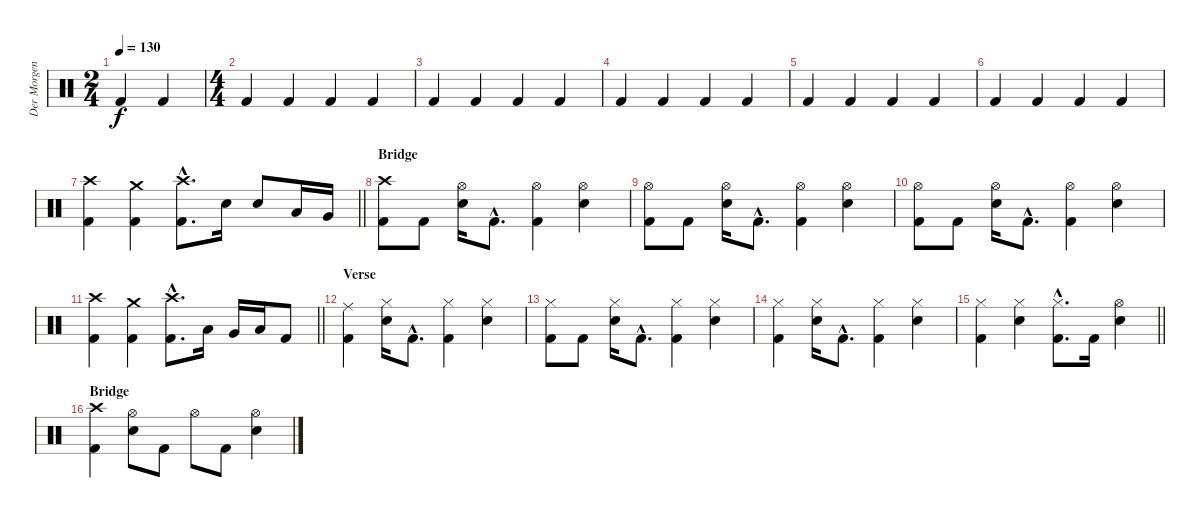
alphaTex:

\track ("Der Morgenstern" "Der Morgen") {instrument percussion}
\staff {score}
\articulation defaults
\ts (2 4)
\tempo 130
\clef neutral
\ks c "Kick (hit) 2".4{dy f} "Kick (hit) 2".4
|
\ts (4 4)
"Kick (hit) 2".4 "Kick (hit) 2".4 "Kick (hit) 2".4 "Kick (hit) 2".4 |
"Kick (hit) 2".4 "Kick (hit) 2".4 "Kick (hit) 2".4 "Kick (hit) 2".4 |
"Kick (hit) 2".4 "Kick (hit) 2".4 "Kick (hit) 2".4 "Kick (hit) 2".4 |
"Kick (hit) 2".4 "Kick (hit) 2".4 "Kick (hit) 2".4 "Kick (hit) 2".4 |
"Kick (hit) 2".4 "Kick (hit) 2".4 "Kick (hit) 2".4 "Kick (hit) 2".4 |
\barLineRight lightlight
("Crash high (hit)" "Kick (hit) 2").4 ("Crash medium (hit)" "Kick (hit) 2").4 ("Crash high (hit)"{hac} "Kick (hit) 2"{hac}).8{d} "Electric Snare (hit)".16 "Electric Snare (hit)".8 "Low Tom (hit)".16 "Very Low Tom (hit)".16 |
\section ("" "Bridge")
("Crash high (hit)" "Kick (hit) 2").8 "Kick (hit) 2".8 ("Hi-Hat (open)" "Electric Snare (hit)").16 "Kick (hit) 2"{hac}.8{d} ("Hi-Hat (open)" "Kick (hit) 2").4 ("Hi-Hat (open)" "Electric Snare (hit)").4 |
("Hi-Hat (open)" "Kick (hit) 2").8 "Kick (hit) 2".8 ("Hi-Hat (open)" "Electric Snare (hit)").16 "Kick (hit) 2"{hac}.8{d} ("Hi-Hat (open)" "Kick (hit) 2").4 ("Hi-Hat (open)" "Electric Snare (hit)").4 |
("Hi-Hat (open)" "Kick (hit) 2").8 "Kick (hit) 2".8 ("Hi-Hat (open)" "Electric Snare (hit)").16 "Kick (hit) 2"{hac}.8{d} ("Hi-Hat (open)" "Kick (hit) 2").4 ("Hi-Hat (open)" "Electric Snare (hit)").4 |
\barLineRight lightlight
("Crash high (hit)" "Kick (hit) 2").4 ("Crash medium (hit)" "Kick (hit) 2").4 ("Crash high (hit)"{hac} "Kick (hit) 2"{hac}).8{d} "Low Tom (hit)".16 "Very Low Tom (hit)".16 "Low Floor Tom (hit)".16 "Kick (hit) 2".8 |
\section ("" "Verse")
("Ride (middle)" "Kick (hit) 2").4 ("Hi-Hat (closed)" "Electric Snare (hit)").16 "Kick (hit) 2"{hac}.8{d} ("Hi-Hat (closed)" "Kick (hit) 2").4 ("Hi-Hat (closed)" "Electric Snare (hit)").4 |
("Hi-Hat (closed)" "Kick (hit) 2").8 "Kick (hit) 2".8 ("Hi-Hat (closed)" "Electric Snare (hit)").16 "Kick (hit) 2"{hac}.8{d} ("Hi-Hat (closed)" "Kick (hit) 2").4 ("Hi-Hat (closed)" "Electric Snare (hit)").4 |
("Hi-Hat (closed)" "Kick (hit) 2").4 ("Hi-Hat (closed)" "Electric Snare (hit)").16 "Kick (hit) 2"{hac}.8{d} ("Hi-Hat (closed)" "Kick (hit) 2").4 ("Hi-Hat (closed)" "Electric Snare (hit)").4 |
\barLineRight lightlight
("Hi-Hat (closed)" "Kick (hit) 2").4 ("Hi-Hat (closed)" "Electric Snare (hit)").4 ("Hi-Hat (closed)"{hac} "Kick (hit) 2"{hac}).8{d} "Kick (hit) 2".16 ("Hi-Hat (open)" "Electric Snare (hit)").4 |
\section ("" "Bridge")
("Crash high (hit)" "Kick (hit) 2").4 ("Hi-Hat (open)" "Electric Snare (hit)").8 "Kick (hit) 2".8 "Hi-Hat (open)".8 "Kick (hit) 2".8 ("Hi-Hat (open)" "Electric Snare (hit)").4
